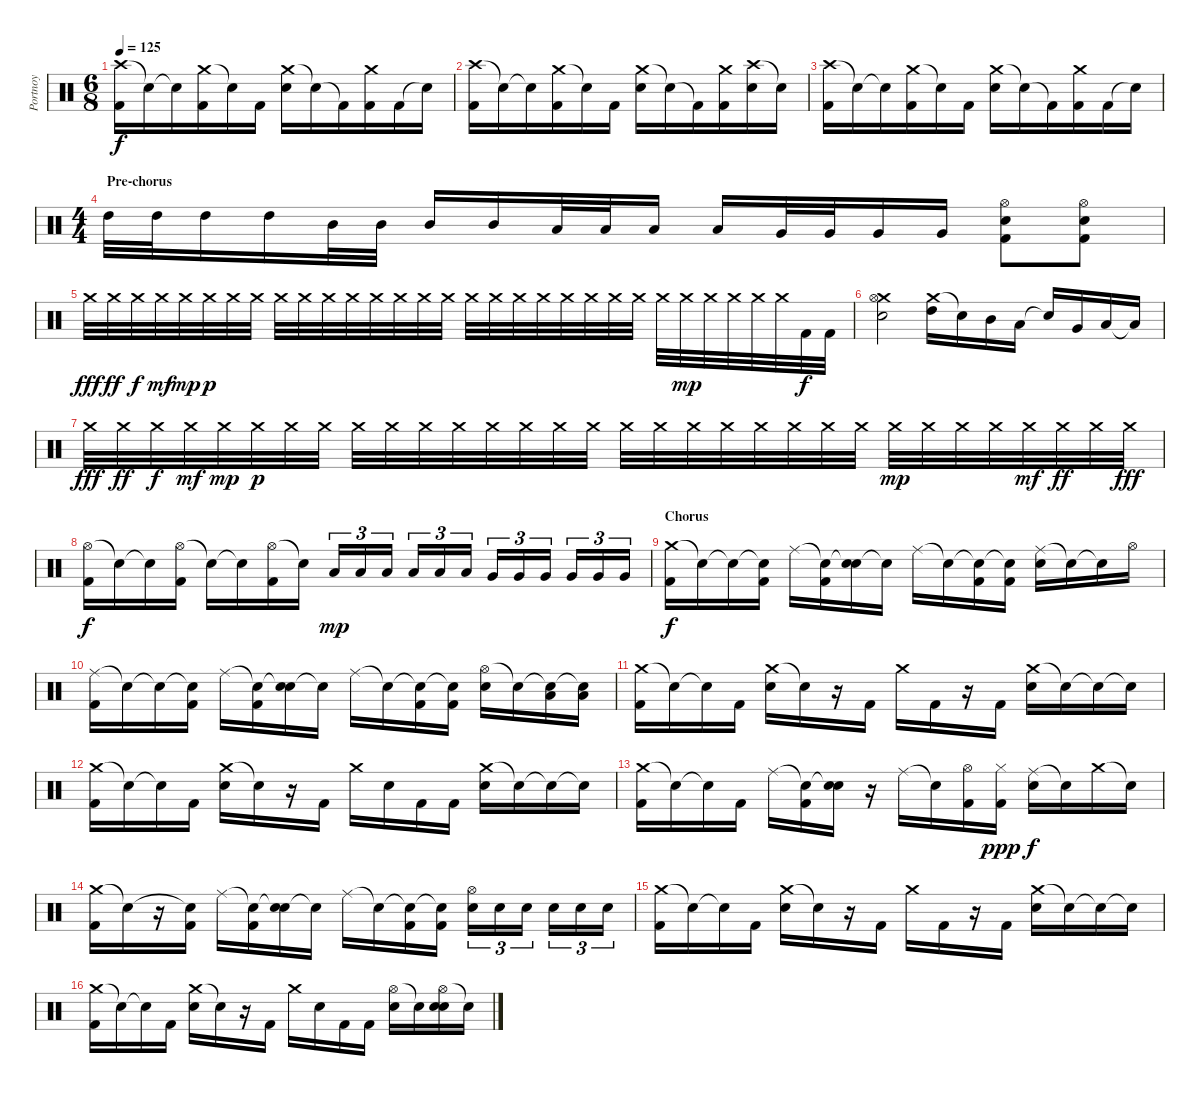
\track ("Portnoy" "Portnoy") {instrument percussion}
\staff {score}
\articulation defaults
\ts (6 8)
\tempo 125
\clef neutral
\ks c
("Crash high (hit)" "Kick (hit) 2").16{dy f} "Snare (hit)"{t}.16 "Snare (hit)"{t}.16 ("Crash medium (hit)" "Kick (hit) 2").16 "Snare (hit)"{t}.16 "Kick (hit) 2".16 ("Crash medium (hit)" "Snare (hit) 2").16 "Snare (hit)"{t}.16 "Kick (hit) 2"{t}.16 ("Crash medium (hit)" "Kick (hit) 2").16 "Kick (hit) 2".16 "Snare (hit)"{t}.16 |
("Crash high (hit)" "Kick (hit) 2").16 "Snare (hit)"{t}.16 "Snare (hit)"{t}.16 ("Crash medium (hit)" "Kick (hit) 2").16 "Snare (hit)"{t}.16 "Kick (hit) 2".16 ("Crash medium (hit)" "Snare (hit) 2").16 "Snare (hit)"{t}.16 "Kick (hit) 2"{t}.16 ("Crash medium (hit)" "Kick (hit) 2").16 ("Crash high (hit)" "Snare (hit) 2").16 "Snare (hit)"{t}.16 |
("Crash high (hit)" "Kick (hit) 2").16 "Snare (hit)"{t}.16 "Snare (hit)"{t}.16 ("Crash medium (hit)" "Kick (hit) 2").16 "Snare (hit)"{t}.16 "Kick (hit) 2".16 ("Crash medium (hit)" "Snare (hit) 2").16 "Snare (hit)"{t}.16 "Kick (hit) 2"{t}.16 ("Crash medium (hit)" "Kick (hit) 2").16 "Kick (hit) 2".16 "Snare (hit)"{t}.16 |
\ts (4 4)
\section ("" " Pre-chorus")
"High Tom (hit)".32 "High Tom (hit)".32 "High Tom (hit)".16 "High Tom (hit)".16 "Mid Tom (hit)".32 "Mid Tom (hit)".32 "Mid Tom (hit)".16 "Mid Tom (hit)".16 "Low Tom (hit)".32 "Low Tom (hit)".32 "Low Tom (hit)".16 "Low Tom (hit)".16 "Very Low Tom (hit)".32 "Very Low Tom (hit)".32 "Very Low Tom (hit)".16 "Very Low Tom (hit)".16 ("Hi-Hat (open)" "Snare (hit) 2" "Kick (hit) 2").8 ("Hi-Hat (open)" "Snare (hit) 2" "Kick (hit) 2").8 |
"Crash medium (hit)".32{dy fff} "Crash medium (hit)".32{dy ff} "Crash medium (hit)".32{dy f} "Crash medium (hit)".32{dy mf} "Crash medium (hit)".32{dy mp} "Crash medium (hit)".32{dy p} "Crash medium (hit)".32 "Crash medium (hit)".32 "Crash medium (hit)".32 "Crash medium (hit)".32 "Crash medium (hit)".32 "Crash medium (hit)".32 "Crash medium (hit)".32 "Crash medium (hit)".32 "Crash medium (hit)".32 "Crash medium (hit)".32 "Crash medium (hit)".32 "Crash medium (hit)".32 "Crash medium (hit)".32 "Crash medium (hit)".32 "Crash medium (hit)".32 "Crash medium (hit)".32 "Crash medium (hit)".32 "Crash medium (hit)".32 "Crash medium (hit)".32 "Crash medium (hit)".32{dy mp} "Crash medium (hit)".32 "Crash medium (hit)".32 "Crash medium (hit)".32 "Crash medium (hit)".32 "Kick (hit) 2".32{dy f} "Kick (hit) 2".32 |
("Crash medium (hit)" "Hi-Hat (open)" "Snare (hit) 2").2 ("Crash medium (hit)" "High Tom (hit)").16 "Snare (hit)"{t}.16 "Mid Tom (hit)".16 "Low Tom (hit)".16 "Snare (hit)"{t}.16 "Very Low Tom (hit)".16 "Low Floor Tom (hit)".16 "Low Floor Tom (hit)"{t}.16 |
"Crash medium (hit)".32{dy fff} "Crash medium (hit)".32{dy ff} "Crash medium (hit)".32{dy f} "Crash medium (hit)".32{dy mf} "Crash medium (hit)".32{dy mp} "Crash medium (hit)".32{dy p} "Crash medium (hit)".32 "Crash medium (hit)".32 "Crash medium (hit)".32 "Crash medium (hit)".32 "Crash medium (hit)".32 "Crash medium (hit)".32 "Crash medium (hit)".32 "Crash medium (hit)".32 "Crash medium (hit)".32 "Crash medium (hit)".32 "Crash medium (hit)".32 "Crash medium (hit)".32 "Crash medium (hit)".32 "Crash medium (hit)".32 "Crash medium (hit)".32 "Crash medium (hit)".32 "Crash medium (hit)".32 "Crash medium (hit)".32 "Crash medium (hit)".32{dy mp} "Crash medium (hit)".32 "Crash medium (hit)".32 "Crash medium (hit)".32 "Crash medium (hit)".32{dy mf} "Crash medium (hit)".32{dy ff} "Crash medium (hit)".32 "Crash medium (hit)".32{dy fff} |
("Hi-Hat (open)" "Kick (hit) 2").16{dy f} "Snare (hit)"{t}.16 "Snare (hit)"{t}.16 ("Hi-Hat (open)" "Kick (hit) 2").16 "Snare (hit)"{t}.16 "Snare (hit)"{t}.16 ("Hi-Hat (open)" "Kick (hit) 2").16 "Snare (hit)"{t}.16 "Low Tom (hit)".16{tu (3 2) dy mp} "Low Tom (hit)".16{tu (3 2)} "Low Tom (hit)".16{tu (3 2)} "Low Tom (hit)".16{tu (3 2)} "Low Tom (hit)".16{tu (3 2)} "Low Tom (hit)".16{tu (3 2)} "Very Low Tom (hit)".16{tu (3 2)} "Very Low Tom (hit)".16{tu (3 2)} "Very Low Tom (hit)".16{tu (3 2)} "Very Low Tom (hit)".16{tu (3 2)} "Very Low Tom (hit)".16{tu (3 2)} "Very Low Tom (hit)".16{tu (3 2)} |
\section ("" "Chorus")
("Crash medium (hit)" "Kick (hit) 2").16{dy f} "Snare (hit)"{t}.16 "Snare (hit)"{t}.16 ("Snare (hit)"{t} "Kick (hit) 2").16 "Ride (middle)".16 ("Snare (hit)"{t} "Kick (hit) 2").16 ("Snare (hit)"{t} "Snare (hit) 2").16 "Snare (hit)"{t}.16 "Ride (middle)".16 "Snare (hit)"{t}.16 ("Snare (hit)"{t} "Kick (hit) 2").16 ("Snare (hit)"{t} "Kick (hit) 2").16 ("Ride (middle)" "Snare (hit) 2").16 "Snare (hit)"{t}.16 "Snare (hit)"{t}.16 "Hi-Hat (open)".16 |
("Ride (middle)" "Kick (hit) 2").16 "Snare (hit)"{t}.16 "Snare (hit)"{t}.16 ("Snare (hit)"{t} "Kick (hit) 2").16 "Ride (middle)".16 ("Snare (hit)"{t} "Kick (hit) 2").16 ("Snare (hit)"{t} "Snare (hit) 2").16 "Snare (hit)"{t}.16 "Ride (middle)".16 "Snare (hit)"{t}.16 ("Snare (hit)"{t} "Kick (hit) 2").16 ("Snare (hit)"{t} "Kick (hit) 2").16 ("Hi-Hat (open)" "Snare (hit) 2").16 "Snare (hit)"{t}.16 ("Snare (hit)"{t} "Low Tom (hit)").16 ("Snare (hit)"{t} "Low Tom (hit)").16 |
("Crash medium (hit)" "Kick (hit) 2").16 "Snare (hit)"{t}.16 "Snare (hit)"{t}.16 "Kick (hit) 2".16 ("Crash medium (hit)" "Snare (hit) 2").16 "Snare (hit)"{t}.16 r.16 "Kick (hit) 2".16 "Crash medium (hit)".16 "Kick (hit) 2".16 r.16 "Kick (hit) 2".16 ("Crash medium (hit)" "Snare (hit) 2").16 "Snare (hit)"{t}.16 "Snare (hit)"{t}.16 "Snare (hit)"{t}.16 |
("Crash medium (hit)" "Kick (hit) 2").16 "Snare (hit)"{t}.16 "Snare (hit)"{t}.16 "Kick (hit) 2".16 ("Crash medium (hit)" "Snare (hit) 2").16 "Snare (hit)"{t}.16 r.16 "Kick (hit) 2".16 "Crash medium (hit)".16 "Snare (hit) 2".16 "Kick (hit) 2".16 "Kick (hit) 2".16 ("Crash medium (hit)" "Snare (hit) 2").16 "Snare (hit)"{t}.16 "Snare (hit)"{t}.16 "Snare (hit)"{t}.16 |
("Crash medium (hit)" "Kick (hit) 2").16 "Snare (hit)"{t}.16 "Snare (hit)"{t}.16 "Kick (hit) 2".16 "Ride (middle)".16 ("Snare (hit)"{t} "Kick (hit) 2").16 ("Snare (hit)"{t} "Snare (hit) 2").16 r.16 "Ride (middle)".16 "Snare (hit)"{t}.16 ("Hi-Hat (open)" "Kick (hit) 2").16 ("Hi-Hat (closed)" "Kick (hit) 2").16{dy ppp} ("Ride (middle)" "Snare (hit) 2").16{dy f} "Snare (hit)"{t}.16 "Crash medium (hit)".16 "Snare (hit)"{t}.16 |
("Crash medium (hit)" "Kick (hit) 2").16 "Snare (hit)"{t}.16 r.16 ("Snare (hit)"{t} "Kick (hit) 2").16 "Ride (middle)".16 ("Snare (hit)"{t} "Kick (hit) 2").16 ("Snare (hit)"{t} "Snare (hit) 2").16 "Snare (hit)"{t}.16 "Ride (middle)".16 "Snare (hit)"{t}.16 ("Snare (hit)"{t} "Kick (hit) 2").16 ("Snare (hit)"{t} "Kick (hit) 2").16 ("Hi-Hat (open)" "Snare (hit) 2").16{tu (3 2)} "Snare (hit) 2".16{tu (3 2)} "Snare (hit) 2".16{tu (3 2)} "Snare (hit) 2".16{tu (3 2)} "Snare (hit) 2".16{tu (3 2)} "Snare (hit) 2".16{tu (3 2)} |
("Crash medium (hit)" "Kick (hit) 2").16 "Snare (hit)"{t}.16 "Snare (hit)"{t}.16 "Kick (hit) 2".16 ("Crash medium (hit)" "Snare (hit) 2").16 "Snare (hit)"{t}.16 r.16 "Kick (hit) 2".16 "Crash medium (hit)".16 "Kick (hit) 2".16 r.16 "Kick (hit) 2".16 ("Crash medium (hit)" "Snare (hit) 2").16 "Snare (hit)"{t}.16 "Snare (hit)"{t}.16 "Snare (hit)"{t}.16 |
("Crash medium (hit)" "Kick (hit) 2").16 "Snare (hit)"{t}.16 "Snare (hit)"{t}.16 "Kick (hit) 2".16 ("Crash medium (hit)" "Snare (hit) 2").16 "Snare (hit)"{t}.16 r.16 "Kick (hit) 2".16 "Crash medium (hit)".16 "Snare (hit) 2".16 "Kick (hit) 2".16 "Kick (hit) 2".16 ("Hi-Hat (open)" "Snare (hit) 2").16 "Snare (hit)"{t}.16 ("Hi-Hat (open)" "Snare (hit) 2" "Snare (hit)").16 "Snare (hit)"{t}.16
